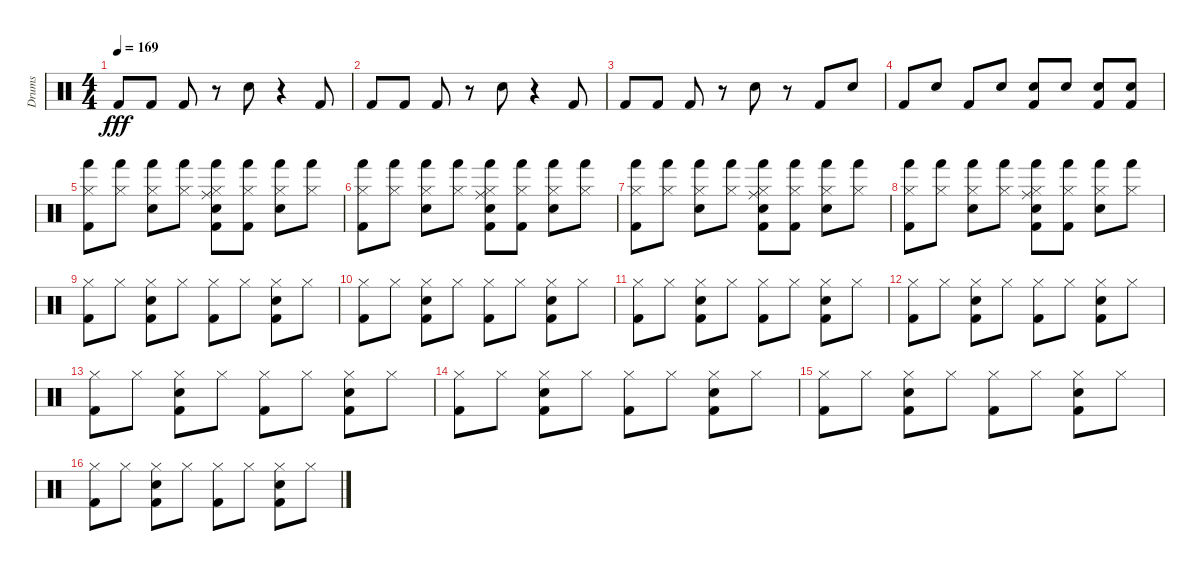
\track ("Drums" "Drums") {instrument percussion}
\staff {score}
\articulation defaults
\ts (4 4)
\tempo 169
\clef neutral
\ks c "Kick (hit) 2".8{dy fff} "Kick (hit) 2".8 "Kick (hit) 2".8
r.8 "Snare (hit) 2".8 r.4 "Kick (hit) 2".8 |
"Kick (hit) 2".8 "Kick (hit) 2".8 "Kick (hit) 2".8 r.8 "Snare (hit) 2".8 r.4 "Kick (hit) 2".8 |
"Kick (hit) 2".8 "Kick (hit) 2".8 "Kick (hit) 2".8 r.8 "Snare (hit) 2".8 r.8 "Kick (hit) 2".8 "Snare (hit) 2".8 |
"Kick (hit) 2".8 "Snare (hit) 2".8 "Kick (hit) 2".8 "Snare (hit) 2".8 ("Kick (hit) 2" "Snare (hit) 2").8 "Snare (hit) 2".8 ("Snare (hit) 2" "Kick (hit) 2").8 ("Snare (hit) 2" "Kick (hit) 2").8 |
("Kick (hit) 2" "Hand (hit)" "Hi-Hat (closed)").8 ("Hand (hit)" "Hi-Hat (closed)").8 ("Snare (hit) 2" "Hand (hit)" "Hi-Hat (closed)").8 ("Hand (hit)" "Hi-Hat (closed)").8 ("Kick (hit) 2" "Hand (hit)" "Electric Snare (hit)" "Ride (middle)" "Hi-Hat (closed)").8 ("Kick (hit) 2" "Hand (hit)" "Hi-Hat (closed)").8 ("Snare (hit) 2" "Hand (hit)" "Hi-Hat (closed)").8 ("Hand (hit)" "Hi-Hat (closed)").8 |
("Kick (hit) 2" "Hand (hit)" "Hi-Hat (closed)").8 ("Hand (hit)" "Hi-Hat (closed)").8 ("Snare (hit) 2" "Hand (hit)" "Hi-Hat (closed)").8 ("Hand (hit)" "Hi-Hat (closed)").8 ("Kick (hit) 2" "Hand (hit)" "Electric Snare (hit)" "Ride (middle)" "Hi-Hat (closed)").8 ("Kick (hit) 2" "Hand (hit)" "Hi-Hat (closed)").8 ("Snare (hit) 2" "Hand (hit)" "Hi-Hat (closed)").8 ("Hand (hit)" "Hi-Hat (closed)").8 |
("Kick (hit) 2" "Hand (hit)" "Hi-Hat (closed)").8 ("Hand (hit)" "Hi-Hat (closed)").8 ("Snare (hit) 2" "Hand (hit)" "Hi-Hat (closed)").8 ("Hand (hit)" "Hi-Hat (closed)").8 ("Kick (hit) 2" "Hand (hit)" "Electric Snare (hit)" "Ride (middle)" "Hi-Hat (closed)").8 ("Kick (hit) 2" "Hand (hit)" "Hi-Hat (closed)").8 ("Snare (hit) 2" "Hand (hit)" "Hi-Hat (closed)").8 ("Hand (hit)" "Hi-Hat (closed)").8 |
("Kick (hit) 2" "Hand (hit)" "Hi-Hat (closed)").8 ("Hand (hit)" "Hi-Hat (closed)").8 ("Snare (hit) 2" "Hand (hit)" "Hi-Hat (closed)").8 ("Hand (hit)" "Hi-Hat (closed)").8 ("Kick (hit) 2" "Hand (hit)" "Electric Snare (hit)" "Ride (middle)" "Hi-Hat (closed)").8 ("Kick (hit) 2" "Hand (hit)" "Hi-Hat (closed)").8 ("Snare (hit) 2" "Hand (hit)" "Hi-Hat (closed)").8 ("Hand (hit)" "Hi-Hat (closed)").8 |
("Kick (hit) 2" "Hi-Hat (closed)").8 "Hi-Hat (closed)".8 ("Snare (hit) 2" "Kick (hit) 2" "Hi-Hat (closed)").8 "Hi-Hat (closed)".8 ("Kick (hit) 2" "Hi-Hat (closed)").8 "Hi-Hat (closed)".8 ("Kick (hit) 2" "Snare (hit) 2" "Hi-Hat (closed)").8 "Hi-Hat (closed)".8 |
("Kick (hit) 2" "Hi-Hat (closed)").8 "Hi-Hat (closed)".8 ("Snare (hit) 2" "Kick (hit) 2" "Hi-Hat (closed)").8 "Hi-Hat (closed)".8 ("Kick (hit) 2" "Hi-Hat (closed)").8 "Hi-Hat (closed)".8 ("Kick (hit) 2" "Snare (hit) 2" "Hi-Hat (closed)").8 "Hi-Hat (closed)".8 |
("Kick (hit) 2" "Hi-Hat (closed)").8 "Hi-Hat (closed)".8 ("Snare (hit) 2" "Kick (hit) 2" "Hi-Hat (closed)").8 "Hi-Hat (closed)".8 ("Kick (hit) 2" "Hi-Hat (closed)").8 "Hi-Hat (closed)".8 ("Kick (hit) 2" "Snare (hit) 2" "Hi-Hat (closed)").8 "Hi-Hat (closed)".8 |
("Kick (hit) 2" "Hi-Hat (closed)").8 "Hi-Hat (closed)".8 ("Snare (hit) 2" "Kick (hit) 2" "Hi-Hat (closed)").8 "Hi-Hat (closed)".8 ("Kick (hit) 2" "Hi-Hat (closed)").8 "Hi-Hat (closed)".8 ("Kick (hit) 2" "Snare (hit) 2" "Hi-Hat (closed)").8 "Hi-Hat (closed)".8 |
("Kick (hit) 2" "Hi-Hat (closed)").8 "Hi-Hat (closed)".8 ("Snare (hit) 2" "Kick (hit) 2" "Hi-Hat (closed)").8 "Hi-Hat (closed)".8 ("Kick (hit) 2" "Hi-Hat (closed)").8 "Hi-Hat (closed)".8 ("Kick (hit) 2" "Snare (hit) 2" "Hi-Hat (closed)").8 "Hi-Hat (closed)".8 |
("Kick (hit) 2" "Hi-Hat (closed)").8 "Hi-Hat (closed)".8 ("Snare (hit) 2" "Kick (hit) 2" "Hi-Hat (closed)").8 "Hi-Hat (closed)".8 ("Kick (hit) 2" "Hi-Hat (closed)").8 "Hi-Hat (closed)".8 ("Kick (hit) 2" "Snare (hit) 2" "Hi-Hat (closed)").8 "Hi-Hat (closed)".8 |
("Kick (hit) 2" "Hi-Hat (closed)").8 "Hi-Hat (closed)".8 ("Snare (hit) 2" "Kick (hit) 2" "Hi-Hat (closed)").8 "Hi-Hat (closed)".8 ("Kick (hit) 2" "Hi-Hat (closed)").8 "Hi-Hat (closed)".8 ("Kick (hit) 2" "Snare (hit) 2" "Hi-Hat (closed)").8 "Hi-Hat (closed)".8 |
("Kick (hit) 2" "Hi-Hat (closed)").8 "Hi-Hat (closed)".8 ("Snare (hit) 2" "Kick (hit) 2" "Hi-Hat (closed)").8 "Hi-Hat (closed)".8 ("Kick (hit) 2" "Hi-Hat (closed)").8 "Hi-Hat (closed)".8 ("Kick (hit) 2" "Snare (hit) 2" "Hi-Hat (closed)").8 "Hi-Hat (closed)".8
